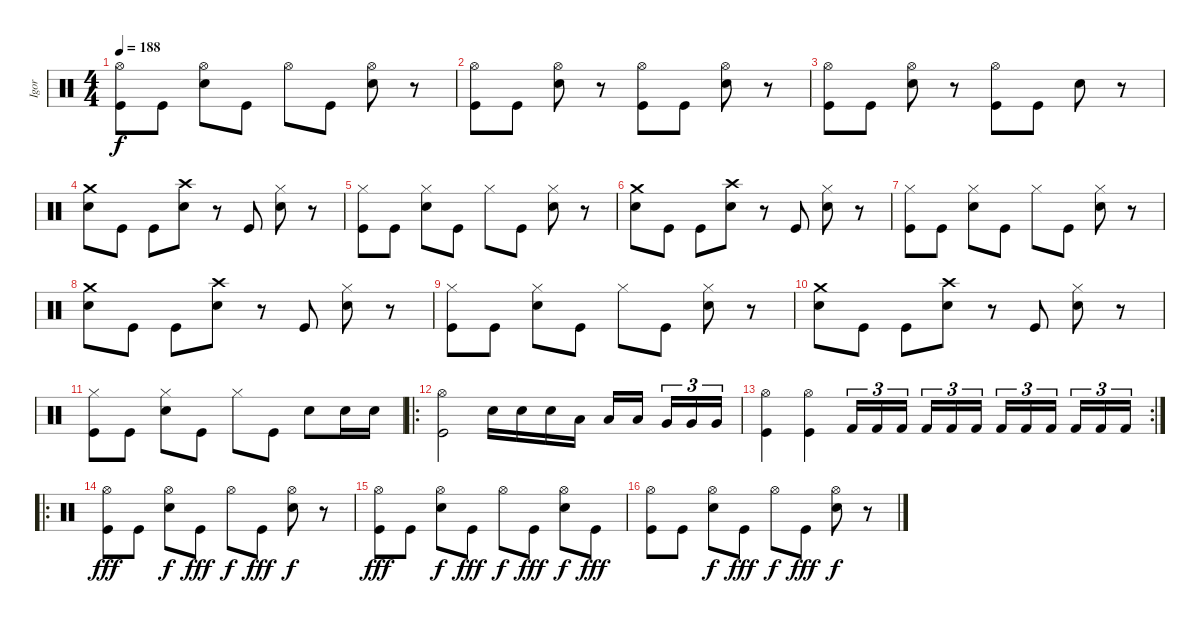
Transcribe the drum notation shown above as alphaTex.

\track ("Igor" "Igor") {instrument percussion}
\staff {score}
\articulation defaults
\ts (4 4)
\tempo 188
\clef neutral
\ks c
("Hi-Hat (open)" "Kick (hit)").8{dy f} "Kick (hit)".8 ("Hi-Hat (open)" "Snare (hit) 2").8 "Kick (hit)".8 "Hi-Hat (open)".8 "Kick (hit)".8 ("Hi-Hat (open)" "Snare (hit) 2").8 r.8 |
("Hi-Hat (open)" "Kick (hit)").8 "Kick (hit)".8 ("Hi-Hat (open)" "Snare (hit) 2").8 r.8 ("Hi-Hat (open)" "Kick (hit)").8 "Kick (hit)".8 ("Hi-Hat (open)" "Snare (hit) 2").8 r.8 |
("Hi-Hat (open)" "Kick (hit)").8 "Kick (hit)".8 ("Hi-Hat (open)" "Snare (hit) 2").8 r.8 ("Hi-Hat (open)" "Kick (hit)").8 "Kick (hit)".8 "Snare (hit) 2".8 r.8 |
("Crash medium (hit)" "Snare (hit) 2").8 "Kick (hit)".8 "Kick (hit)".8 ("Crash high (hit)" "Snare (hit) 2").8 r.8 "Kick (hit)".8 ("Hi-Hat (closed)" "Snare (hit) 2").8 r.8 |
("Hi-Hat (closed)" "Kick (hit)").8 "Kick (hit)".8 ("Hi-Hat (closed)" "Snare (hit) 2").8 "Kick (hit)".8 "Hi-Hat (closed)".8 "Kick (hit)".8 ("Hi-Hat (closed)" "Snare (hit) 2").8 r.8 |
("Crash medium (hit)" "Snare (hit) 2").8 "Kick (hit)".8 "Kick (hit)".8 ("Crash high (hit)" "Snare (hit) 2").8 r.8 "Kick (hit)".8 ("Hi-Hat (closed)" "Snare (hit) 2").8 r.8 |
("Hi-Hat (closed)" "Kick (hit)").8 "Kick (hit)".8 ("Hi-Hat (closed)" "Snare (hit) 2").8 "Kick (hit)".8 "Hi-Hat (closed)".8 "Kick (hit)".8 ("Hi-Hat (closed)" "Snare (hit) 2").8 r.8 |
("Crash medium (hit)" "Snare (hit) 2").8 "Kick (hit)".8 "Kick (hit)".8 ("Crash high (hit)" "Snare (hit) 2").8 r.8 "Kick (hit)".8 ("Hi-Hat (closed)" "Snare (hit) 2").8 r.8 |
("Hi-Hat (closed)" "Kick (hit)").8 "Kick (hit)".8 ("Hi-Hat (closed)" "Snare (hit) 2").8 "Kick (hit)".8 "Hi-Hat (closed)".8 "Kick (hit)".8 ("Hi-Hat (closed)" "Snare (hit) 2").8 r.8 |
("Crash medium (hit)" "Snare (hit) 2").8 "Kick (hit)".8 "Kick (hit)".8 ("Crash high (hit)" "Snare (hit) 2").8 r.8 "Kick (hit)".8 ("Hi-Hat (closed)" "Snare (hit) 2").8 r.8 |
("Hi-Hat (closed)" "Kick (hit)").8 "Kick (hit)".8 ("Hi-Hat (closed)" "Snare (hit) 2").8 "Kick (hit)".8 "Hi-Hat (closed)".8 "Kick (hit)".8 "Snare (hit) 2".8 "Snare (hit) 2".16 "Snare (hit) 2".16 |
\ro
("Hi-Hat (open)" "Kick (hit)").2 "Snare (hit) 2".16 "Snare (hit) 2".16 "Snare (hit) 2".16 "Low Tom (hit)".16 "Low Tom (hit)".16 "Low Tom (hit)".16 "Very Low Tom (hit)".16{tu (3 2)} "Very Low Tom (hit)".16{tu (3 2)} "Very Low Tom (hit)".16{tu (3 2)} |
\rc 2
("Hi-Hat (open)" "Kick (hit)").4 ("Hi-Hat (open)" "Kick (hit)").4 "Kick (hit) 2".16{tu (3 2)} "Kick (hit) 2".16{tu (3 2)} "Kick (hit) 2".16{tu (3 2)} "Kick (hit) 2".16{tu (3 2)} "Kick (hit) 2".16{tu (3 2)} "Kick (hit) 2".16{tu (3 2)} "Kick (hit) 2".16{tu (3 2)} "Kick (hit) 2".16{tu (3 2)} "Kick (hit) 2".16{tu (3 2)} "Kick (hit) 2".16{tu (3 2)} "Kick (hit) 2".16{tu (3 2)} "Kick (hit) 2".16{tu (3 2)} |
\ro
("Hi-Hat (open)" "Kick (hit)").8{dy fff} "Kick (hit)".8 ("Hi-Hat (open)" "Snare (hit) 2").8{dy f} "Kick (hit)".8{dy fff} "Hi-Hat (open)".8{dy f} "Kick (hit)".8{dy fff} ("Hi-Hat (open)" "Snare (hit) 2").8{dy f} r.8 |
("Hi-Hat (open)" "Kick (hit)").8{dy fff} "Kick (hit)".8 ("Hi-Hat (open)" "Snare (hit) 2").8{dy f} "Kick (hit)".8{dy fff} "Hi-Hat (open)".8{dy f} "Kick (hit)".8{dy fff} ("Hi-Hat (open)" "Snare (hit) 2").8{dy f} "Kick (hit)".8{dy fff} |
("Hi-Hat (open)" "Kick (hit)").8 "Kick (hit)".8 ("Hi-Hat (open)" "Snare (hit) 2").8{dy f} "Kick (hit)".8{dy fff} "Hi-Hat (open)".8{dy f} "Kick (hit)".8{dy fff} ("Hi-Hat (open)" "Snare (hit) 2").8{dy f} r.8
